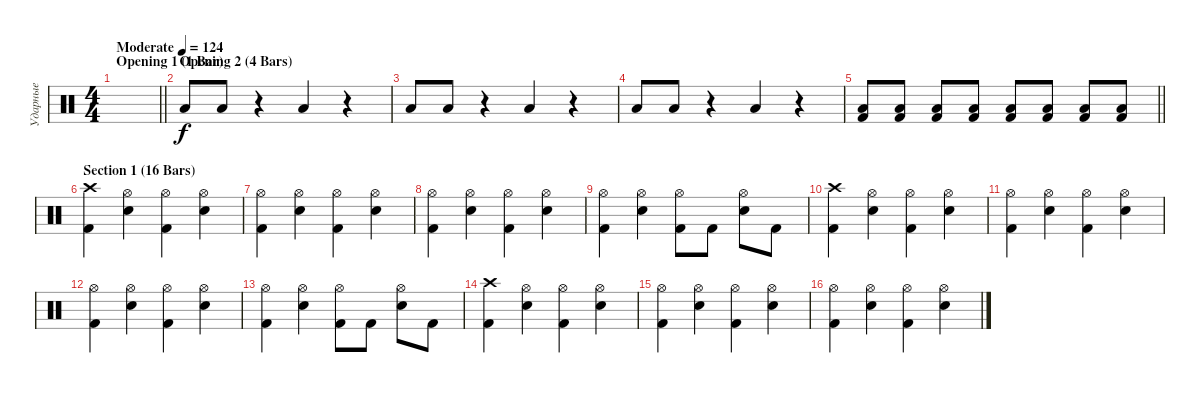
\track ("Ударные" "Ударные") {instrument percussion}
\staff {score}
\articulation defaults
\ts (4 4)
\section ("" "Opening 1 (1 Bar)")
\tempo (124 "Moderate")
\clef neutral
\barLineRight lightlight
\ks c
|
\section ("" "Opening 2 (4 Bars)")
"Low Floor Tom (hit)".8 "Low Floor Tom (hit)".8 r.4 "Low Floor Tom (hit)".4 r.4 |
"Low Floor Tom (hit)".8 "Low Floor Tom (hit)".8 r.4 "Low Floor Tom (hit)".4 r.4 |
"Low Floor Tom (hit)".8 "Low Floor Tom (hit)".8 r.4 "Low Floor Tom (hit)".4 r.4 |
\barLineRight lightlight
("Low Floor Tom (hit)" "Kick (hit) 2").8 ("Low Floor Tom (hit)" "Kick (hit) 2").8 ("Low Floor Tom (hit)" "Kick (hit) 2").8 ("Low Floor Tom (hit)" "Kick (hit) 2").8 ("Low Floor Tom (hit)" "Kick (hit) 2").8 ("Low Floor Tom (hit)" "Kick (hit) 2").8 ("Low Floor Tom (hit)" "Kick (hit) 2").8 ("Low Floor Tom (hit)" "Kick (hit) 2").8 |
\section ("" "Section 1 (16 Bars)")
("Crash high (hit)" "Kick (hit) 2").4 ("Electric Snare (hit)" "Hi-Hat (open)").4 ("Kick (hit) 2" "Hi-Hat (open)").4 ("Electric Snare (hit)" "Hi-Hat (open)").4 |
("Kick (hit) 2" "Hi-Hat (open)").4 ("Electric Snare (hit)" "Hi-Hat (open)").4 ("Kick (hit) 2" "Hi-Hat (open)").4 ("Electric Snare (hit)" "Hi-Hat (open)").4 |
("Kick (hit) 2" "Hi-Hat (open)").4 ("Electric Snare (hit)" "Hi-Hat (open)").4 ("Kick (hit) 2" "Hi-Hat (open)").4 ("Electric Snare (hit)" "Hi-Hat (open)").4 |
("Kick (hit) 2" "Hi-Hat (open)").4 ("Electric Snare (hit)" "Hi-Hat (open)").4 ("Kick (hit) 2" "Hi-Hat (open)").8 "Kick (hit) 2".8 ("Electric Snare (hit)" "Hi-Hat (open)").8 "Kick (hit) 2".8 |
("Crash high (hit)" "Kick (hit) 2").4 ("Electric Snare (hit)" "Hi-Hat (open)").4 ("Kick (hit) 2" "Hi-Hat (open)").4 ("Electric Snare (hit)" "Hi-Hat (open)").4 |
("Kick (hit) 2" "Hi-Hat (open)").4 ("Electric Snare (hit)" "Hi-Hat (open)").4 ("Kick (hit) 2" "Hi-Hat (open)").4 ("Electric Snare (hit)" "Hi-Hat (open)").4 |
("Kick (hit) 2" "Hi-Hat (open)").4 ("Electric Snare (hit)" "Hi-Hat (open)").4 ("Kick (hit) 2" "Hi-Hat (open)").4 ("Electric Snare (hit)" "Hi-Hat (open)").4 |
("Kick (hit) 2" "Hi-Hat (open)").4 ("Electric Snare (hit)" "Hi-Hat (open)").4 ("Kick (hit) 2" "Hi-Hat (open)").8 "Kick (hit) 2".8 ("Electric Snare (hit)" "Hi-Hat (open)").8 "Kick (hit) 2".8 |
("Crash high (hit)" "Kick (hit) 2").4 ("Electric Snare (hit)" "Hi-Hat (open)").4 ("Kick (hit) 2" "Hi-Hat (open)").4 ("Electric Snare (hit)" "Hi-Hat (open)").4 |
("Kick (hit) 2" "Hi-Hat (open)").4 ("Electric Snare (hit)" "Hi-Hat (open)").4 ("Kick (hit) 2" "Hi-Hat (open)").4 ("Electric Snare (hit)" "Hi-Hat (open)").4 |
("Kick (hit) 2" "Hi-Hat (open)").4 ("Electric Snare (hit)" "Hi-Hat (open)").4 ("Kick (hit) 2" "Hi-Hat (open)").4 ("Electric Snare (hit)" "Hi-Hat (open)").4
